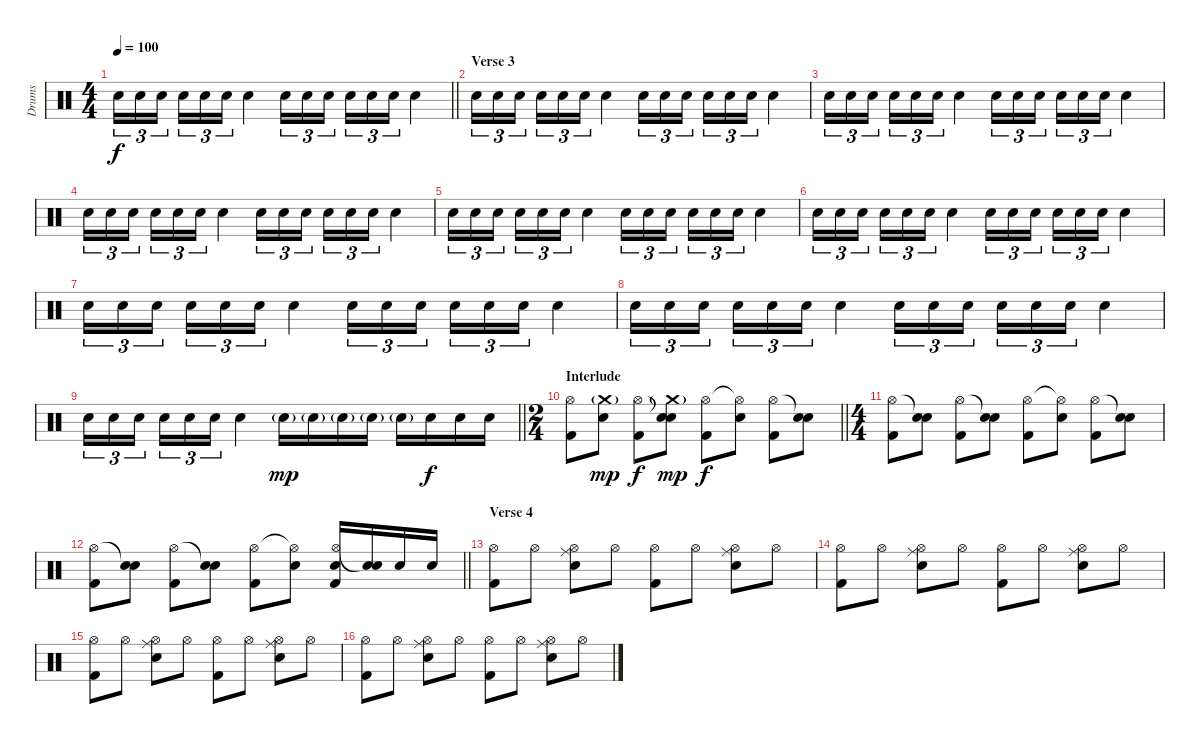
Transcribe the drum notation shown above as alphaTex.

\track ("Drums" "Drums") {instrument percussion}
\staff {score}
\articulation defaults
\ts (4 4)
\tempo 100
\clef neutral
\barLineRight lightlight
\ks c "Snare (hit) 2".16{tu (3 2) dy f} "Snare (hit) 2".16{tu (3 2)} "Snare (hit) 2".16{tu (3 2) beam splitsecondary} "Snare (hit) 2".16{tu (3 2)} "Snare (hit) 2".16{tu (3 2)} "Snare (hit) 2".16{tu (3 2)} "Snare (hit) 2".4 "Snare (hit) 2".16{tu (3 2)} "Snare (hit) 2".16{tu (3 2)} "Snare (hit) 2".16{tu (3 2) beam splitsecondary} "Snare (hit) 2".16{tu (3 2)} "Snare (hit) 2".16{tu (3 2)} "Snare (hit) 2".16{tu (3 2)} "Snare (hit) 2".4
|
\section ("" "Verse 3")
"Snare (hit) 2".16{tu (3 2)} "Snare (hit) 2".16{tu (3 2)} "Snare (hit) 2".16{tu (3 2) beam splitsecondary} "Snare (hit) 2".16{tu (3 2)} "Snare (hit) 2".16{tu (3 2)} "Snare (hit) 2".16{tu (3 2)} "Snare (hit) 2".4 "Snare (hit) 2".16{tu (3 2)} "Snare (hit) 2".16{tu (3 2)} "Snare (hit) 2".16{tu (3 2) beam splitsecondary} "Snare (hit) 2".16{tu (3 2)} "Snare (hit) 2".16{tu (3 2)} "Snare (hit) 2".16{tu (3 2)} "Snare (hit) 2".4 |
"Snare (hit) 2".16{tu (3 2)} "Snare (hit) 2".16{tu (3 2)} "Snare (hit) 2".16{tu (3 2) beam splitsecondary} "Snare (hit) 2".16{tu (3 2)} "Snare (hit) 2".16{tu (3 2)} "Snare (hit) 2".16{tu (3 2)} "Snare (hit) 2".4 "Snare (hit) 2".16{tu (3 2)} "Snare (hit) 2".16{tu (3 2)} "Snare (hit) 2".16{tu (3 2) beam splitsecondary} "Snare (hit) 2".16{tu (3 2)} "Snare (hit) 2".16{tu (3 2)} "Snare (hit) 2".16{tu (3 2)} "Snare (hit) 2".4 |
"Snare (hit) 2".16{tu (3 2)} "Snare (hit) 2".16{tu (3 2)} "Snare (hit) 2".16{tu (3 2) beam splitsecondary} "Snare (hit) 2".16{tu (3 2)} "Snare (hit) 2".16{tu (3 2)} "Snare (hit) 2".16{tu (3 2)} "Snare (hit) 2".4 "Snare (hit) 2".16{tu (3 2)} "Snare (hit) 2".16{tu (3 2)} "Snare (hit) 2".16{tu (3 2) beam splitsecondary} "Snare (hit) 2".16{tu (3 2)} "Snare (hit) 2".16{tu (3 2)} "Snare (hit) 2".16{tu (3 2)} "Snare (hit) 2".4 |
"Snare (hit) 2".16{tu (3 2)} "Snare (hit) 2".16{tu (3 2)} "Snare (hit) 2".16{tu (3 2) beam splitsecondary} "Snare (hit) 2".16{tu (3 2)} "Snare (hit) 2".16{tu (3 2)} "Snare (hit) 2".16{tu (3 2)} "Snare (hit) 2".4 "Snare (hit) 2".16{tu (3 2)} "Snare (hit) 2".16{tu (3 2)} "Snare (hit) 2".16{tu (3 2) beam splitsecondary} "Snare (hit) 2".16{tu (3 2)} "Snare (hit) 2".16{tu (3 2)} "Snare (hit) 2".16{tu (3 2)} "Snare (hit) 2".4 |
"Snare (hit) 2".16{tu (3 2)} "Snare (hit) 2".16{tu (3 2)} "Snare (hit) 2".16{tu (3 2) beam splitsecondary} "Snare (hit) 2".16{tu (3 2)} "Snare (hit) 2".16{tu (3 2)} "Snare (hit) 2".16{tu (3 2)} "Snare (hit) 2".4 "Snare (hit) 2".16{tu (3 2)} "Snare (hit) 2".16{tu (3 2)} "Snare (hit) 2".16{tu (3 2) beam splitsecondary} "Snare (hit) 2".16{tu (3 2)} "Snare (hit) 2".16{tu (3 2)} "Snare (hit) 2".16{tu (3 2)} "Snare (hit) 2".4 |
"Snare (hit) 2".16{tu (3 2)} "Snare (hit) 2".16{tu (3 2)} "Snare (hit) 2".16{tu (3 2) beam splitsecondary} "Snare (hit) 2".16{tu (3 2)} "Snare (hit) 2".16{tu (3 2)} "Snare (hit) 2".16{tu (3 2)} "Snare (hit) 2".4 "Snare (hit) 2".16{tu (3 2)} "Snare (hit) 2".16{tu (3 2)} "Snare (hit) 2".16{tu (3 2) beam splitsecondary} "Snare (hit) 2".16{tu (3 2)} "Snare (hit) 2".16{tu (3 2)} "Snare (hit) 2".16{tu (3 2)} "Snare (hit) 2".4 |
"Snare (hit) 2".16{tu (3 2)} "Snare (hit) 2".16{tu (3 2)} "Snare (hit) 2".16{tu (3 2) beam splitsecondary} "Snare (hit) 2".16{tu (3 2)} "Snare (hit) 2".16{tu (3 2)} "Snare (hit) 2".16{tu (3 2)} "Snare (hit) 2".4 "Snare (hit) 2".16{tu (3 2)} "Snare (hit) 2".16{tu (3 2)} "Snare (hit) 2".16{tu (3 2) beam splitsecondary} "Snare (hit) 2".16{tu (3 2)} "Snare (hit) 2".16{tu (3 2)} "Snare (hit) 2".16{tu (3 2)} "Snare (hit) 2".4 |
\barLineRight lightlight "Snare (hit) 2".16{tu (3 2)} "Snare (hit) 2".16{tu (3 2)} "Snare (hit) 2".16{tu (3 2) beam splitsecondary} "Snare (hit) 2".16{tu (3 2)} "Snare (hit) 2".16{tu (3 2)} "Snare (hit) 2".16{tu (3 2)} "Snare (hit) 2".4 "Snare (hit) 2"{g}.16{dy mp} "Snare (hit) 2"{g}.16 "Snare (hit) 2"{g}.16 "Snare (hit) 2"{g}.16 "Snare (hit) 2"{g}.16 "Snare (hit) 2".16{dy f} "Snare (hit) 2".16 "Snare (hit) 2".16
|
\ts (2 4)
\section ("" "Interlude")
\barLineRight lightlight
("Hi-Hat (open)" "Kick (hit) 2").8 ("Crash medium (hit)"{g} "Snare (hit) 2").8{dy mp} ("Hi-Hat (open)" "Kick (hit) 2").8{dy f} ("Snare (hit)"{t} "Crash medium (hit)"{g} "Snare (hit) 2").8{dy mp} ("Hi-Hat (open)" "Kick (hit) 2").8{dy f} ("Hi-Hat (open)"{t} "Snare (hit) 2").8 ("Hi-Hat (open)" "Kick (hit) 2").8 ("Snare (hit)"{t} "Snare (hit) 2").8 |
\ts (4 4)
("Hi-Hat (open)" "Kick (hit) 2").8 ("Snare (hit)"{t} "Snare (hit) 2").8 ("Hi-Hat (open)" "Kick (hit) 2").8 ("Snare (hit)"{t} "Snare (hit) 2").8 ("Hi-Hat (open)" "Kick (hit) 2").8 ("Hi-Hat (open)"{t} "Snare (hit) 2").8 ("Hi-Hat (open)" "Kick (hit) 2").8 ("Snare (hit)"{t} "Snare (hit) 2").8 |
\barLineRight lightlight
("Hi-Hat (open)" "Kick (hit) 2").8 ("Snare (hit)"{t} "Snare (hit) 2").8 ("Hi-Hat (open)" "Kick (hit) 2").8 ("Snare (hit)"{t} "Snare (hit) 2").8 ("Hi-Hat (open)" "Kick (hit) 2").8 ("Hi-Hat (open)"{t} "Snare (hit) 2").8 ("Hi-Hat (open)" "Snare (hit) 2" "Kick (hit) 2").16 ("Snare (hit)"{t} "Snare (hit) 2").16 "Snare (hit) 2".16 "Snare (hit) 2".16 |
\section ("" "Verse 4")
("Hi-Hat (open)" "Kick (hit) 2").8 "Hi-Hat (open)".8 ("Hi-Hat (open)" "Ride (middle)" "Snare (hit) 2").8 "Hi-Hat (open)".8 ("Hi-Hat (open)" "Kick (hit) 2").8 "Hi-Hat (open)".8 ("Hi-Hat (open)" "Ride (middle)" "Snare (hit) 2").8 "Hi-Hat (open)".8 |
("Hi-Hat (open)" "Kick (hit) 2").8 "Hi-Hat (open)".8 ("Hi-Hat (open)" "Ride (middle)" "Snare (hit) 2").8 "Hi-Hat (open)".8 ("Hi-Hat (open)" "Kick (hit) 2").8 "Hi-Hat (open)".8 ("Hi-Hat (open)" "Ride (middle)" "Snare (hit) 2").8 "Hi-Hat (open)".8 |
("Hi-Hat (open)" "Kick (hit) 2").8 "Hi-Hat (open)".8 ("Hi-Hat (open)" "Ride (middle)" "Snare (hit) 2").8 "Hi-Hat (open)".8 ("Hi-Hat (open)" "Kick (hit) 2").8 "Hi-Hat (open)".8 ("Hi-Hat (open)" "Ride (middle)" "Snare (hit) 2").8 "Hi-Hat (open)".8 |
("Hi-Hat (open)" "Kick (hit) 2").8 "Hi-Hat (open)".8 ("Hi-Hat (open)" "Ride (middle)" "Snare (hit) 2").8 "Hi-Hat (open)".8 ("Hi-Hat (open)" "Kick (hit) 2").8 "Hi-Hat (open)".8 ("Hi-Hat (open)" "Ride (middle)" "Snare (hit) 2").8 "Hi-Hat (open)".8
